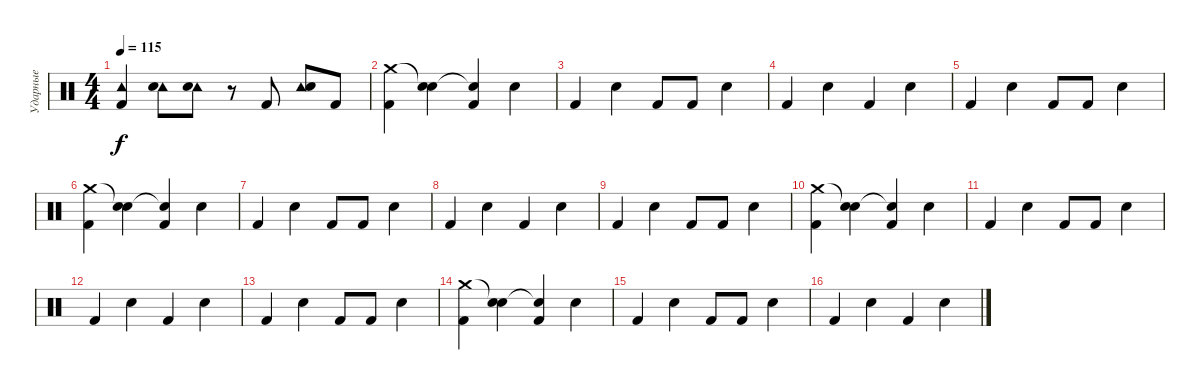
\track ("Ударные" "Ударные") {instrument percussion}
\staff
\articulation defaults
\ts (4 4)
\tempo 115
\clef neutral
\ks c
("Tambourine (hit)" "Kick (hit) 2").4{dy f} ("Tambourine (hit)" "Electric Snare (hit)").8 ("Tambourine (hit)" "Electric Snare (hit)").8 r.8 "Kick (hit) 2".8 ("Tambourine (hit)" "Electric Snare (hit)").8 "Kick (hit) 2".8 |
("Crash medium (hit)" "Kick (hit) 2").4 ("Snare (hit)"{t} "Electric Snare (hit)").4 ("Snare (hit)"{t} "Kick (hit) 2").4 "Electric Snare (hit)".4 |
"Kick (hit) 2".4 "Electric Snare (hit)".4 "Kick (hit) 2".8 "Kick (hit) 2".8 "Electric Snare (hit)".4 |
"Kick (hit) 2".4 "Electric Snare (hit)".4 "Kick (hit) 2".4 "Electric Snare (hit)".4 |
"Kick (hit) 2".4 "Electric Snare (hit)".4 "Kick (hit) 2".8 "Kick (hit) 2".8 "Electric Snare (hit)".4 |
("Crash medium (hit)" "Kick (hit) 2").4 ("Snare (hit)"{t} "Electric Snare (hit)").4 ("Snare (hit)"{t} "Kick (hit) 2").4 "Electric Snare (hit)".4 |
"Kick (hit) 2".4 "Electric Snare (hit)".4 "Kick (hit) 2".8 "Kick (hit) 2".8 "Electric Snare (hit)".4 |
"Kick (hit) 2".4 "Electric Snare (hit)".4 "Kick (hit) 2".4 "Electric Snare (hit)".4 |
"Kick (hit) 2".4 "Electric Snare (hit)".4 "Kick (hit) 2".8 "Kick (hit) 2".8 "Electric Snare (hit)".4 |
("Crash medium (hit)" "Kick (hit) 2").4 ("Snare (hit)"{t} "Electric Snare (hit)").4 ("Snare (hit)"{t} "Kick (hit) 2").4 "Electric Snare (hit)".4 |
"Kick (hit) 2".4 "Electric Snare (hit)".4 "Kick (hit) 2".8 "Kick (hit) 2".8 "Electric Snare (hit)".4 |
"Kick (hit) 2".4 "Electric Snare (hit)".4 "Kick (hit) 2".4 "Electric Snare (hit)".4 |
"Kick (hit) 2".4 "Electric Snare (hit)".4 "Kick (hit) 2".8 "Kick (hit) 2".8 "Electric Snare (hit)".4 |
("Crash medium (hit)" "Kick (hit) 2").4 ("Snare (hit)"{t} "Electric Snare (hit)").4 ("Snare (hit)"{t} "Kick (hit) 2").4 "Electric Snare (hit)".4 |
"Kick (hit) 2".4 "Electric Snare (hit)".4 "Kick (hit) 2".8 "Kick (hit) 2".8 "Electric Snare (hit)".4 |
"Kick (hit) 2".4 "Electric Snare (hit)".4 "Kick (hit) 2".4 "Electric Snare (hit)".4
